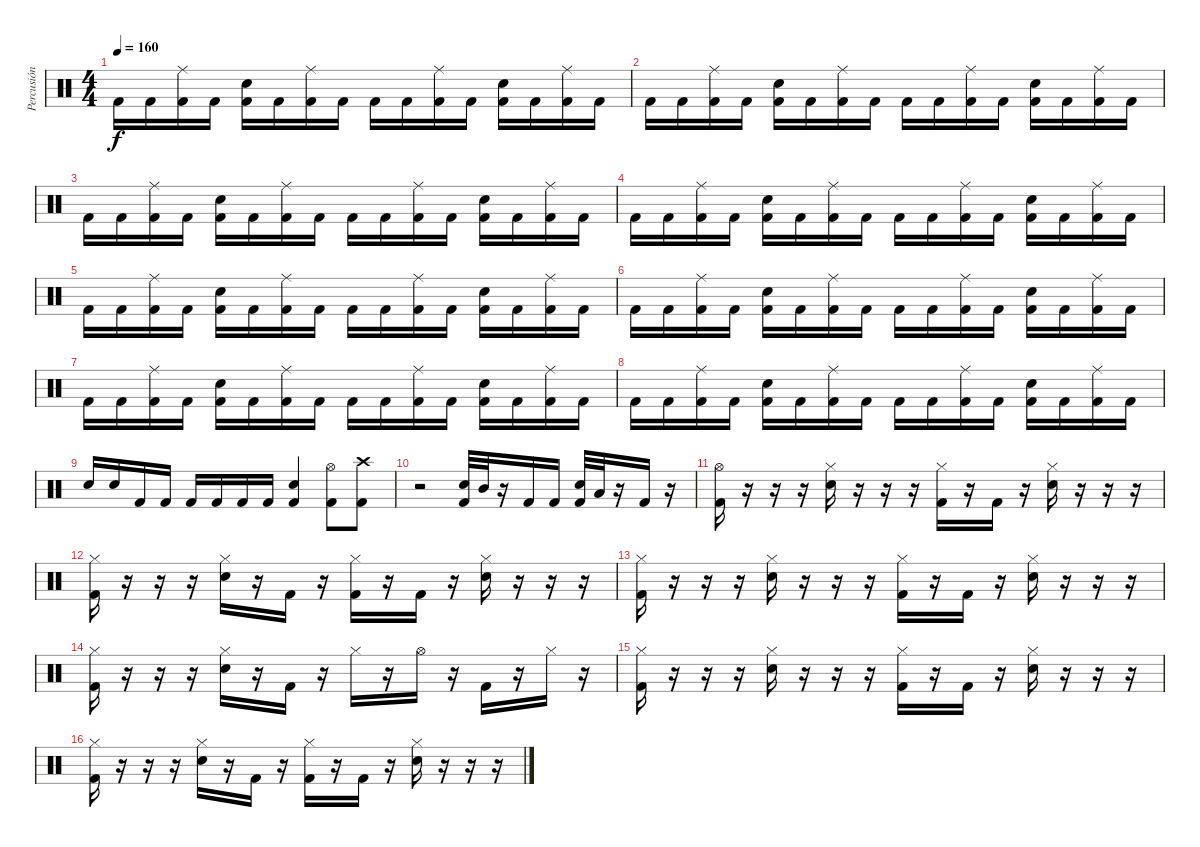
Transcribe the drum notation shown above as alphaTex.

\track ("Percusión" "Percusión") {instrument percussion}
\staff {score}
\articulation defaults
\ts (4 4)
\tempo 160
\clef neutral
\ks c "Kick (hit) 2".16{dy f} "Kick (hit) 2".16
("Ride (middle)" "Kick (hit) 2").16 "Kick (hit) 2".16 ("Snare (hit) 2" "Kick (hit) 2").16 "Kick (hit) 2".16 ("Ride (middle)" "Kick (hit) 2").16 "Kick (hit) 2".16 "Kick (hit) 2".16 "Kick (hit) 2".16 ("Ride (middle)" "Kick (hit) 2").16 "Kick (hit) 2".16 ("Snare (hit) 2" "Kick (hit) 2").16 "Kick (hit) 2".16 ("Ride (middle)" "Kick (hit) 2").16 "Kick (hit) 2".16 |
"Kick (hit) 2".16 "Kick (hit) 2".16 ("Ride (middle)" "Kick (hit) 2").16 "Kick (hit) 2".16 ("Snare (hit) 2" "Kick (hit) 2").16 "Kick (hit) 2".16 ("Ride (middle)" "Kick (hit) 2").16 "Kick (hit) 2".16 "Kick (hit) 2".16 "Kick (hit) 2".16 ("Ride (middle)" "Kick (hit) 2").16 "Kick (hit) 2".16 ("Snare (hit) 2" "Kick (hit) 2").16 "Kick (hit) 2".16 ("Ride (middle)" "Kick (hit) 2").16 "Kick (hit) 2".16 |
"Kick (hit) 2".16 "Kick (hit) 2".16 ("Ride (middle)" "Kick (hit) 2").16 "Kick (hit) 2".16 ("Snare (hit) 2" "Kick (hit) 2").16 "Kick (hit) 2".16 ("Ride (middle)" "Kick (hit) 2").16 "Kick (hit) 2".16 "Kick (hit) 2".16 "Kick (hit) 2".16 ("Ride (middle)" "Kick (hit) 2").16 "Kick (hit) 2".16 ("Snare (hit) 2" "Kick (hit) 2").16 "Kick (hit) 2".16 ("Ride (middle)" "Kick (hit) 2").16 "Kick (hit) 2".16 |
"Kick (hit) 2".16 "Kick (hit) 2".16 ("Ride (middle)" "Kick (hit) 2").16 "Kick (hit) 2".16 ("Snare (hit) 2" "Kick (hit) 2").16 "Kick (hit) 2".16 ("Ride (middle)" "Kick (hit) 2").16 "Kick (hit) 2".16 "Kick (hit) 2".16 "Kick (hit) 2".16 ("Ride (middle)" "Kick (hit) 2").16 "Kick (hit) 2".16 ("Snare (hit) 2" "Kick (hit) 2").16 "Kick (hit) 2".16 ("Ride (middle)" "Kick (hit) 2").16 "Kick (hit) 2".16 |
"Kick (hit) 2".16 "Kick (hit) 2".16 ("Ride (middle)" "Kick (hit) 2").16 "Kick (hit) 2".16 ("Snare (hit) 2" "Kick (hit) 2").16 "Kick (hit) 2".16 ("Ride (middle)" "Kick (hit) 2").16 "Kick (hit) 2".16 "Kick (hit) 2".16 "Kick (hit) 2".16 ("Ride (middle)" "Kick (hit) 2").16 "Kick (hit) 2".16 ("Snare (hit) 2" "Kick (hit) 2").16 "Kick (hit) 2".16 ("Ride (middle)" "Kick (hit) 2").16 "Kick (hit) 2".16 |
"Kick (hit) 2".16 "Kick (hit) 2".16 ("Ride (middle)" "Kick (hit) 2").16 "Kick (hit) 2".16 ("Snare (hit) 2" "Kick (hit) 2").16 "Kick (hit) 2".16 ("Ride (middle)" "Kick (hit) 2").16 "Kick (hit) 2".16 "Kick (hit) 2".16 "Kick (hit) 2".16 ("Ride (middle)" "Kick (hit) 2").16 "Kick (hit) 2".16 ("Snare (hit) 2" "Kick (hit) 2").16 "Kick (hit) 2".16 ("Ride (middle)" "Kick (hit) 2").16 "Kick (hit) 2".16 |
"Kick (hit) 2".16 "Kick (hit) 2".16 ("Ride (middle)" "Kick (hit) 2").16 "Kick (hit) 2".16 ("Snare (hit) 2" "Kick (hit) 2").16 "Kick (hit) 2".16 ("Ride (middle)" "Kick (hit) 2").16 "Kick (hit) 2".16 "Kick (hit) 2".16 "Kick (hit) 2".16 ("Ride (middle)" "Kick (hit) 2").16 "Kick (hit) 2".16 ("Snare (hit) 2" "Kick (hit) 2").16 "Kick (hit) 2".16 ("Ride (middle)" "Kick (hit) 2").16 "Kick (hit) 2".16 |
"Kick (hit) 2".16 "Kick (hit) 2".16 ("Ride (middle)" "Kick (hit) 2").16 "Kick (hit) 2".16 ("Snare (hit) 2" "Kick (hit) 2").16 "Kick (hit) 2".16 ("Ride (middle)" "Kick (hit) 2").16 "Kick (hit) 2".16 "Kick (hit) 2".16 "Kick (hit) 2".16 ("Ride (middle)" "Kick (hit) 2").16 "Kick (hit) 2".16 ("Snare (hit) 2" "Kick (hit) 2").16 "Kick (hit) 2".16 ("Ride (middle)" "Kick (hit) 2").16 "Kick (hit) 2".16 |
"Snare (hit) 2".16 "Snare (hit) 2".16 "Kick (hit) 2".16 "Kick (hit) 2".16 "Kick (hit) 2".16 "Kick (hit) 2".16 "Kick (hit) 2".16 "Kick (hit) 2".16 ("Snare (hit) 2" "Kick (hit) 2").4 ("Hi-Hat (open)" "Kick (hit) 2").8 ("Crash high (hit)" "Kick (hit) 2").8 |
r.2 ("Snare (hit) 2" "Kick (hit) 2").32 "Mid Tom (hit)".32 r.16 "Kick (hit) 2".16 "Kick (hit) 2".16 ("Snare (hit) 2" "Kick (hit) 2").32 "Low Tom (hit)".32 r.16 "Kick (hit) 2".16 r.16 |
("Hi-Hat (open)" "Kick (hit) 2").16 r.16 r.16 r.16 ("Hi-Hat (closed)" "Snare (hit) 2").16 r.16 r.16 r.16 ("Hi-Hat (closed)" "Kick (hit) 2").16 r.16 "Kick (hit) 2".16 r.16 ("Hi-Hat (closed)" "Snare (hit) 2").16 r.16 r.16 r.16 |
("Hi-Hat (closed)" "Kick (hit) 2").16 r.16 r.16 r.16 ("Hi-Hat (closed)" "Snare (hit) 2").16 r.16 "Kick (hit) 2".16 r.16 ("Hi-Hat (closed)" "Kick (hit) 2").16 r.16 "Kick (hit) 2".16 r.16 ("Hi-Hat (closed)" "Snare (hit) 2").16 r.16 r.16 r.16 |
("Hi-Hat (closed)" "Kick (hit) 2").16 r.16 r.16 r.16 ("Hi-Hat (closed)" "Snare (hit) 2").16 r.16 r.16 r.16 ("Hi-Hat (closed)" "Kick (hit) 2").16 r.16 "Kick (hit) 2".16 r.16 ("Hi-Hat (closed)" "Snare (hit) 2").16 r.16 r.16 r.16 |
("Hi-Hat (closed)" "Kick (hit) 2").16 r.16 r.16 r.16 ("Hi-Hat (closed)" "Snare (hit) 2").16 r.16 "Kick (hit) 2".16 r.16 "Hi-Hat (closed)".16 r.16 "Hi-Hat (open)".16 r.16 "Kick (hit) 2".16 r.16 "Hi-Hat (closed)".16 r.16 |
("Hi-Hat (closed)" "Kick (hit) 2").16 r.16 r.16 r.16 ("Hi-Hat (closed)" "Snare (hit) 2").16 r.16 r.16 r.16 ("Hi-Hat (closed)" "Kick (hit) 2").16 r.16 "Kick (hit) 2".16 r.16 ("Hi-Hat (closed)" "Snare (hit) 2").16 r.16 r.16 r.16 |
("Hi-Hat (closed)" "Kick (hit) 2").16 r.16 r.16 r.16 ("Hi-Hat (closed)" "Snare (hit) 2").16 r.16 "Kick (hit) 2".16 r.16 ("Hi-Hat (closed)" "Kick (hit) 2").16 r.16 "Kick (hit) 2".16 r.16 ("Hi-Hat (closed)" "Snare (hit) 2").16 r.16 r.16 r.16
